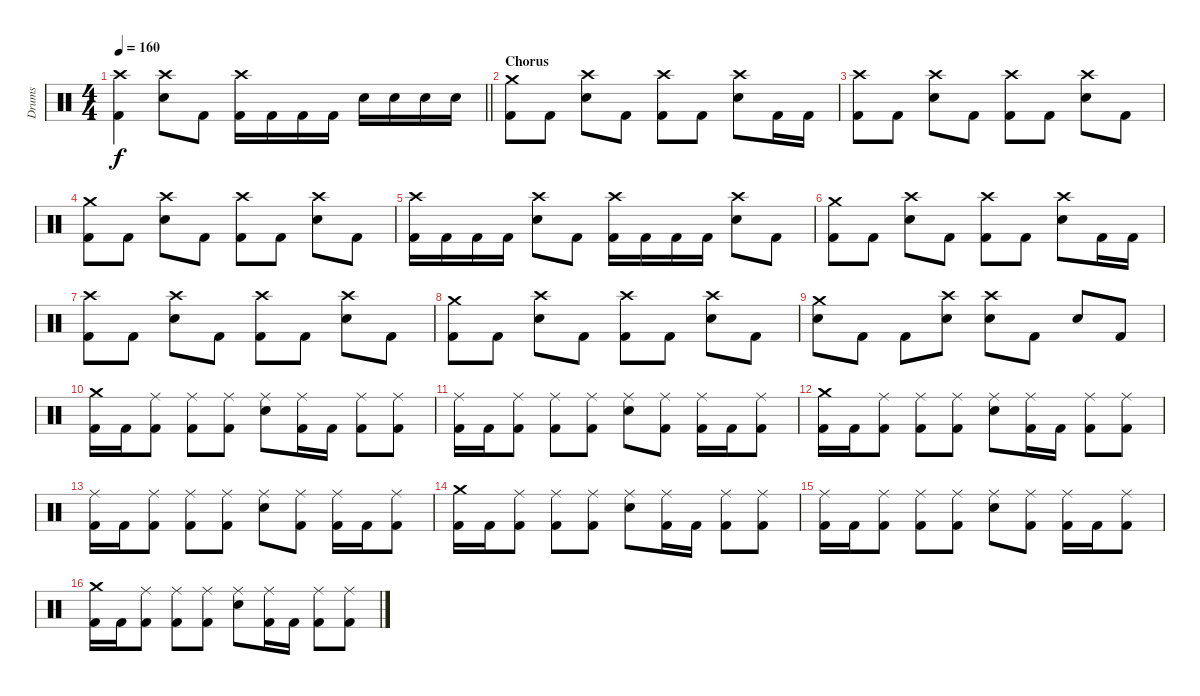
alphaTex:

\track ("Drums" "Drums") {instrument percussion}
\staff {score}
\articulation defaults
\ts (4 4)
\tempo 160
\clef neutral
\barLineRight lightlight
\ks c
("Crash high (hit)" "Kick (hit) 2").4{dy f} ("Crash high (hit)" "Electric Snare (hit)").8 "Kick (hit) 2".8 ("Crash high (hit)" "Kick (hit) 2").16 "Kick (hit) 2".16 "Kick (hit) 2".16 "Kick (hit) 2".16 "Electric Snare (hit)".16 "Electric Snare (hit)".16 "Electric Snare (hit)".16 "Electric Snare (hit)".16 |
\section ("" "Chorus")
("Crash medium (hit)" "Kick (hit) 2").8 "Kick (hit) 2".8 ("Crash high (hit)" "Electric Snare (hit)").8 "Kick (hit) 2".8 ("Crash high (hit)" "Kick (hit) 2").8 "Kick (hit) 2".8 ("Crash high (hit)" "Electric Snare (hit)").8 "Kick (hit) 2".16 "Kick (hit) 2".16 |
("Crash high (hit)" "Kick (hit) 2").8 "Kick (hit) 2".8 ("Crash high (hit)" "Electric Snare (hit)").8 "Kick (hit) 2".8 ("Crash high (hit)" "Kick (hit) 2").8 "Kick (hit) 2".8 ("Crash high (hit)" "Electric Snare (hit)").8 "Kick (hit) 2".8 |
("Crash medium (hit)" "Kick (hit) 2").8 "Kick (hit) 2".8 ("Crash high (hit)" "Electric Snare (hit)").8 "Kick (hit) 2".8 ("Crash high (hit)" "Kick (hit) 2").8 "Kick (hit) 2".8 ("Crash high (hit)" "Electric Snare (hit)").8 "Kick (hit) 2".8 |
("Crash high (hit)" "Kick (hit) 2").16 "Kick (hit) 2".16 "Kick (hit) 2".16 "Kick (hit) 2".16 ("Crash high (hit)" "Electric Snare (hit)").8 "Kick (hit) 2".8 ("Crash high (hit)" "Kick (hit) 2").16 "Kick (hit) 2".16 "Kick (hit) 2".16 "Kick (hit) 2".16 ("Crash high (hit)" "Electric Snare (hit)").8 "Kick (hit) 2".8 |
("Crash medium (hit)" "Kick (hit) 2").8 "Kick (hit) 2".8 ("Crash high (hit)" "Electric Snare (hit)").8 "Kick (hit) 2".8 ("Crash high (hit)" "Kick (hit) 2").8 "Kick (hit) 2".8 ("Crash high (hit)" "Electric Snare (hit)").8 "Kick (hit) 2".16 "Kick (hit) 2".16 |
("Crash high (hit)" "Kick (hit) 2").8 "Kick (hit) 2".8 ("Crash high (hit)" "Electric Snare (hit)").8 "Kick (hit) 2".8 ("Crash high (hit)" "Kick (hit) 2").8 "Kick (hit) 2".8 ("Crash high (hit)" "Electric Snare (hit)").8 "Kick (hit) 2".8 |
("Crash medium (hit)" "Kick (hit) 2").8 "Kick (hit) 2".8 ("Crash high (hit)" "Electric Snare (hit)").8 "Kick (hit) 2".8 ("Crash high (hit)" "Kick (hit) 2").8 "Kick (hit) 2".8 ("Crash high (hit)" "Electric Snare (hit)").8 "Kick (hit) 2".8 |
("Crash medium (hit)" "Electric Snare (hit)").8 "Kick (hit) 2".8 "Kick (hit) 2".8 ("Crash high (hit)" "Electric Snare (hit)").8 ("Crash high (hit)" "Electric Snare (hit)").8 "Kick (hit) 2".8 "Electric Snare (hit)".8 "Kick (hit) 2".8 |
("Crash medium (hit)" "Kick (hit) 2").16 "Kick (hit) 2".16 ("Ride (middle)" "Kick (hit) 2").8 ("Ride (middle)" "Kick (hit) 2").8 ("Ride (middle)" "Kick (hit) 2").8 ("Ride (middle)" "Electric Snare (hit)").8 ("Ride (middle)" "Kick (hit) 2").16 "Kick (hit) 2".16 ("Ride (middle)" "Kick (hit) 2").8 ("Ride (middle)" "Kick (hit) 2").8 |
("Ride (middle)" "Kick (hit) 2").16 "Kick (hit) 2".16 ("Ride (middle)" "Kick (hit) 2").8 ("Ride (middle)" "Kick (hit) 2").8 ("Ride (middle)" "Kick (hit) 2").8 ("Ride (middle)" "Electric Snare (hit)").8 ("Ride (middle)" "Kick (hit) 2").8 ("Ride (middle)" "Kick (hit) 2").16 "Kick (hit) 2".16 ("Ride (middle)" "Kick (hit) 2").8 |
("Crash medium (hit)" "Kick (hit) 2").16 "Kick (hit) 2".16 ("Ride (middle)" "Kick (hit) 2").8 ("Ride (middle)" "Kick (hit) 2").8 ("Ride (middle)" "Kick (hit) 2").8 ("Ride (middle)" "Electric Snare (hit)").8 ("Ride (middle)" "Kick (hit) 2").16 "Kick (hit) 2".16 ("Ride (middle)" "Kick (hit) 2").8 ("Ride (middle)" "Kick (hit) 2").8 |
("Ride (middle)" "Kick (hit) 2").16 "Kick (hit) 2".16 ("Ride (middle)" "Kick (hit) 2").8 ("Ride (middle)" "Kick (hit) 2").8 ("Ride (middle)" "Kick (hit) 2").8 ("Ride (middle)" "Electric Snare (hit)").8 ("Ride (middle)" "Kick (hit) 2").8 ("Ride (middle)" "Kick (hit) 2").16 "Kick (hit) 2".16 ("Ride (middle)" "Kick (hit) 2").8 |
("Crash medium (hit)" "Kick (hit) 2").16 "Kick (hit) 2".16 ("Ride (middle)" "Kick (hit) 2").8 ("Ride (middle)" "Kick (hit) 2").8 ("Ride (middle)" "Kick (hit) 2").8 ("Ride (middle)" "Electric Snare (hit)").8 ("Ride (middle)" "Kick (hit) 2").16 "Kick (hit) 2".16 ("Ride (middle)" "Kick (hit) 2").8 ("Ride (middle)" "Kick (hit) 2").8 |
("Ride (middle)" "Kick (hit) 2").16 "Kick (hit) 2".16 ("Ride (middle)" "Kick (hit) 2").8 ("Ride (middle)" "Kick (hit) 2").8 ("Ride (middle)" "Kick (hit) 2").8 ("Ride (middle)" "Electric Snare (hit)").8 ("Ride (middle)" "Kick (hit) 2").8 ("Ride (middle)" "Kick (hit) 2").16 "Kick (hit) 2".16 ("Ride (middle)" "Kick (hit) 2").8 |
("Crash medium (hit)" "Kick (hit) 2").16 "Kick (hit) 2".16 ("Ride (middle)" "Kick (hit) 2").8 ("Ride (middle)" "Kick (hit) 2").8 ("Ride (middle)" "Kick (hit) 2").8 ("Ride (middle)" "Electric Snare (hit)").8 ("Ride (middle)" "Kick (hit) 2").16 "Kick (hit) 2".16 ("Ride (middle)" "Kick (hit) 2").8 ("Ride (middle)" "Kick (hit) 2").8
